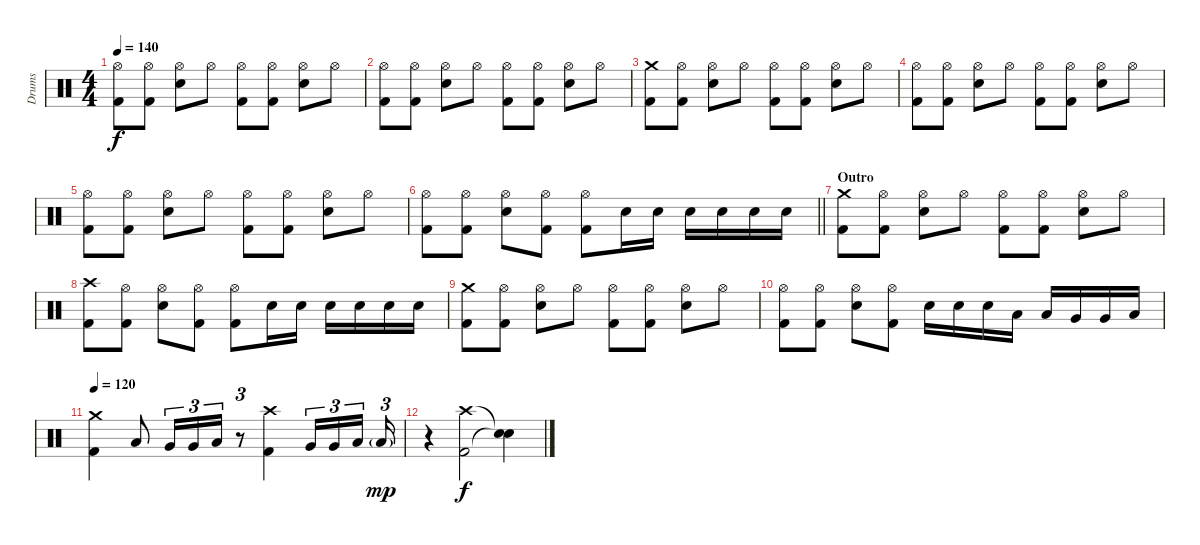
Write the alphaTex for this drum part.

\track ("Drums" "Drums") {instrument percussion}
\staff {score}
\articulation defaults
\ts (4 4)
\tempo 140
\clef neutral
\ks c
("Hi-Hat (open)" "Kick (hit) 2").8{dy f} ("Hi-Hat (open)" "Kick (hit) 2").8 ("Hi-Hat (open)" "Electric Snare (hit)").8 "Hi-Hat (open)".8 ("Hi-Hat (open)" "Kick (hit) 2").8 ("Hi-Hat (open)" "Kick (hit) 2").8 ("Hi-Hat (open)" "Electric Snare (hit)").8 "Hi-Hat (open)".8 |
("Hi-Hat (open)" "Kick (hit) 2").8 ("Hi-Hat (open)" "Kick (hit) 2").8 ("Hi-Hat (open)" "Electric Snare (hit)").8 "Hi-Hat (open)".8 ("Hi-Hat (open)" "Kick (hit) 2").8 ("Hi-Hat (open)" "Kick (hit) 2").8 ("Hi-Hat (open)" "Electric Snare (hit)").8 "Hi-Hat (open)".8 |
("Crash medium (hit)" "Kick (hit) 2").8 ("Hi-Hat (open)" "Kick (hit) 2").8 ("Hi-Hat (open)" "Electric Snare (hit)").8 "Hi-Hat (open)".8 ("Hi-Hat (open)" "Kick (hit) 2").8 ("Hi-Hat (open)" "Kick (hit) 2").8 ("Hi-Hat (open)" "Electric Snare (hit)").8 "Hi-Hat (open)".8 |
("Hi-Hat (open)" "Kick (hit) 2").8 ("Hi-Hat (open)" "Kick (hit) 2").8 ("Hi-Hat (open)" "Electric Snare (hit)").8 "Hi-Hat (open)".8 ("Hi-Hat (open)" "Kick (hit) 2").8 ("Hi-Hat (open)" "Kick (hit) 2").8 ("Hi-Hat (open)" "Electric Snare (hit)").8 "Hi-Hat (open)".8 |
("Hi-Hat (open)" "Kick (hit) 2").8 ("Hi-Hat (open)" "Kick (hit) 2").8 ("Hi-Hat (open)" "Electric Snare (hit)").8 "Hi-Hat (open)".8 ("Hi-Hat (open)" "Kick (hit) 2").8 ("Hi-Hat (open)" "Kick (hit) 2").8 ("Hi-Hat (open)" "Electric Snare (hit)").8 "Hi-Hat (open)".8 |
\barLineRight lightlight
("Hi-Hat (open)" "Kick (hit) 2").8 ("Hi-Hat (open)" "Kick (hit) 2").8 ("Hi-Hat (open)" "Electric Snare (hit)").8 ("Hi-Hat (open)" "Kick (hit) 2").8 ("Hi-Hat (open)" "Kick (hit) 2").8 "Electric Snare (hit)".16 "Electric Snare (hit)".16 "Electric Snare (hit)".16 "Electric Snare (hit)".16 "Electric Snare (hit)".16 "Electric Snare (hit)".16 |
\section ("" "Outro")
("Crash medium (hit)" "Kick (hit) 2").8 ("Hi-Hat (open)" "Kick (hit) 2").8 ("Hi-Hat (open)" "Electric Snare (hit)").8 "Hi-Hat (open)".8 ("Hi-Hat (open)" "Kick (hit) 2").8 ("Hi-Hat (open)" "Kick (hit) 2").8 ("Hi-Hat (open)" "Electric Snare (hit)").8 "Hi-Hat (open)".8 |
("Crash high (hit)" "Kick (hit) 2").8 ("Hi-Hat (open)" "Kick (hit) 2").8 ("Hi-Hat (open)" "Electric Snare (hit)").8 ("Hi-Hat (open)" "Kick (hit) 2").8 ("Hi-Hat (open)" "Kick (hit) 2").8 "Electric Snare (hit)".16 "Electric Snare (hit)".16 "Electric Snare (hit)".16 "Electric Snare (hit)".16 "Electric Snare (hit)".16 "Electric Snare (hit)".16 |
("Crash medium (hit)" "Kick (hit) 2").8 ("Hi-Hat (open)" "Kick (hit) 2").8 ("Hi-Hat (open)" "Electric Snare (hit)").8 "Hi-Hat (open)".8 ("Hi-Hat (open)" "Kick (hit) 2").8 ("Hi-Hat (open)" "Kick (hit) 2").8 ("Hi-Hat (open)" "Electric Snare (hit)").8 "Hi-Hat (open)".8 |
("Hi-Hat (open)" "Kick (hit) 2").8 ("Hi-Hat (open)" "Kick (hit) 2").8 ("Hi-Hat (open)" "Electric Snare (hit)").8 ("Hi-Hat (open)" "Kick (hit) 2").8 "Electric Snare (hit)".16 "Electric Snare (hit)".16 "Electric Snare (hit)".16 "Low Tom (hit)".16 "Low Tom (hit)".16 "Very Low Tom (hit)".16 "Very Low Tom (hit)".16 "Low Floor Tom (hit)".16 |
\tempo 120
("Crash medium (hit)" "Kick (hit) 2").4 "Low Tom (hit)".8 "Very Low Tom (hit)".16{tu (3 2)} "Very Low Tom (hit)".16{tu (3 2)} "Low Floor Tom (hit)".16{tu (3 2)} r.8{tu (3 2)} ("Crash high (hit)" "Kick (hit) 2").4 "Very Low Tom (hit)".16{tu (3 2)} "Very Low Tom (hit)".16{tu (3 2)} "Low Floor Tom (hit)".16{tu (3 2) beam splitsecondary} "Low Floor Tom (hit)"{g}.16{tu (3 2) dy mp} |
r.4 ("Crash high (hit)" "Kick (hit) 2").2{dy f} ("Snare (hit)"{t} "Snare (hit)"{t}).4
